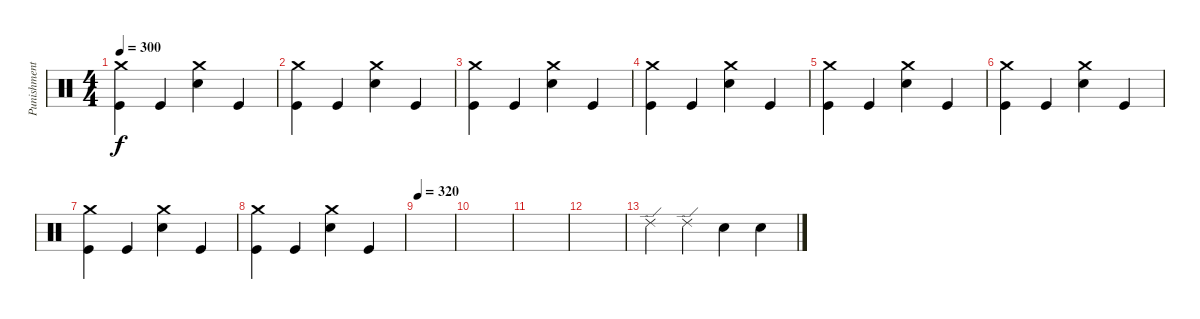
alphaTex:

\track ("Punishment" "Punishment") {instrument percussion}
\staff {score}
\articulation defaults
\ts (4 4)
\tempo 300
\clef neutral
\ks c
("Kick (hit)" "Crash medium (hit)").4{dy f} "Kick (hit)".4 ("Electric Snare (hit)" "Crash medium (hit)").4 "Kick (hit)".4 |
("Kick (hit)" "Crash medium (hit)").4 "Kick (hit)".4 ("Electric Snare (hit)" "Crash medium (hit)").4 "Kick (hit)".4 |
("Kick (hit)" "Crash medium (hit)").4 "Kick (hit)".4 ("Electric Snare (hit)" "Crash medium (hit)").4 "Kick (hit)".4 |
("Kick (hit)" "Crash medium (hit)").4 "Kick (hit)".4 ("Electric Snare (hit)" "Crash medium (hit)").4 "Kick (hit)".4 |
("Kick (hit)" "Crash medium (hit)").4 "Kick (hit)".4 ("Electric Snare (hit)" "Crash medium (hit)").4 "Kick (hit)".4 |
("Kick (hit)" "Crash medium (hit)").4 "Kick (hit)".4 ("Electric Snare (hit)" "Crash medium (hit)").4 "Kick (hit)".4 |
("Kick (hit)" "Crash medium (hit)").4 "Kick (hit)".4 ("Electric Snare (hit)" "Crash medium (hit)").4 "Kick (hit)".4 |
("Kick (hit)" "Crash medium (hit)").4 "Kick (hit)".4 ("Electric Snare (hit)" "Crash medium (hit)").4 "Kick (hit)".4 |
\tempo 320
|
|
|
|
"Ride (edge) 2".4 "Ride (edge) 2".4 "Snare (hit)"{x}.4 "Snare (hit)"{x}.4
